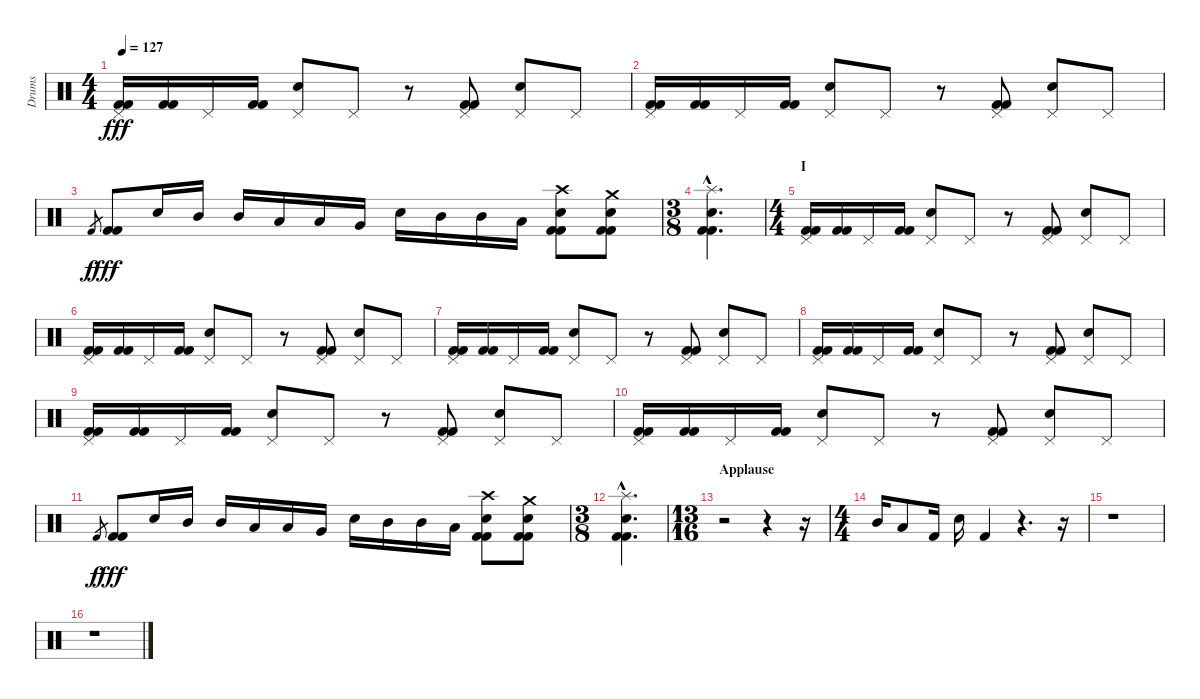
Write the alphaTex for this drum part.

\track ("Drums" "Drums") {instrument percussion}
\staff {score}
\articulation defaults
\ts (4 4)
\tempo 127
\clef neutral
\ks c
("Pedal Hi-Hat (hit)" "Kick (hit) 2" "Kick (hit) 2").16{dy fff} ("Kick (hit) 2" "Kick (hit) 2").16 "Pedal Hi-Hat (hit)".16 ("Kick (hit) 2" "Kick (hit) 2").16 ("Pedal Hi-Hat (hit)" "Electric Snare (hit)").8 "Pedal Hi-Hat (hit)".8 r.8 ("Pedal Hi-Hat (hit)" "Kick (hit) 2" "Kick (hit) 2").8 ("Pedal Hi-Hat (hit)" "Electric Snare (hit)").8 "Pedal Hi-Hat (hit)".8 |
("Pedal Hi-Hat (hit)" "Kick (hit) 2" "Kick (hit) 2").16 ("Kick (hit) 2" "Kick (hit) 2").16 "Pedal Hi-Hat (hit)".16 ("Kick (hit) 2" "Kick (hit) 2").16 ("Pedal Hi-Hat (hit)" "Electric Snare (hit)").8 "Pedal Hi-Hat (hit)".8 r.8 ("Pedal Hi-Hat (hit)" "Kick (hit) 2" "Kick (hit) 2").8 ("Pedal Hi-Hat (hit)" "Electric Snare (hit)").8 "Pedal Hi-Hat (hit)".8 |
"Kick (hit) 2".8{gr dy f} ("Kick (hit) 2" "Kick (hit) 2").8{dy fff} "Electric Snare (hit)".16 "Mid Tom (hit)".16 "Mid Tom (hit)".16 "Low Tom (hit)".16 "Low Tom (hit)".16 "Very Low Tom (hit)".16 "Electric Snare (hit)".16 "Mid Tom (hit)".16 "Mid Tom (hit)".16 "Low Tom (hit)".16 ("Crash high (hit)" "Electric Snare (hit)" "Kick (hit) 2" "Kick (hit) 2").8 ("Crash medium (hit)" "Electric Snare (hit)" "Kick (hit) 2" "Kick (hit) 2").8 |
\ts (3 8)
("Splash (hit)"{hac} "Electric Snare (hit)"{hac} "Kick (hit) 2"{hac} "Kick (hit) 2"{hac}).4{d} |
\ts (4 4)
\section ("" "I")
("Pedal Hi-Hat (hit)" "Kick (hit) 2" "Kick (hit) 2").16 ("Kick (hit) 2" "Kick (hit) 2").16 "Pedal Hi-Hat (hit)".16 ("Kick (hit) 2" "Kick (hit) 2").16 ("Pedal Hi-Hat (hit)" "Electric Snare (hit)").8 "Pedal Hi-Hat (hit)".8 r.8 ("Pedal Hi-Hat (hit)" "Kick (hit) 2" "Kick (hit) 2").8 ("Pedal Hi-Hat (hit)" "Electric Snare (hit)").8 "Pedal Hi-Hat (hit)".8 |
("Pedal Hi-Hat (hit)" "Kick (hit) 2" "Kick (hit) 2").16 ("Kick (hit) 2" "Kick (hit) 2").16 "Pedal Hi-Hat (hit)".16 ("Kick (hit) 2" "Kick (hit) 2").16 ("Pedal Hi-Hat (hit)" "Electric Snare (hit)").8 "Pedal Hi-Hat (hit)".8 r.8 ("Pedal Hi-Hat (hit)" "Kick (hit) 2" "Kick (hit) 2").8 ("Pedal Hi-Hat (hit)" "Electric Snare (hit)").8 "Pedal Hi-Hat (hit)".8 |
("Pedal Hi-Hat (hit)" "Kick (hit) 2" "Kick (hit) 2").16 ("Kick (hit) 2" "Kick (hit) 2").16 "Pedal Hi-Hat (hit)".16 ("Kick (hit) 2" "Kick (hit) 2").16 ("Pedal Hi-Hat (hit)" "Electric Snare (hit)").8 "Pedal Hi-Hat (hit)".8 r.8 ("Pedal Hi-Hat (hit)" "Kick (hit) 2" "Kick (hit) 2").8 ("Pedal Hi-Hat (hit)" "Electric Snare (hit)").8 "Pedal Hi-Hat (hit)".8 |
("Pedal Hi-Hat (hit)" "Kick (hit) 2" "Kick (hit) 2").16 ("Kick (hit) 2" "Kick (hit) 2").16 "Pedal Hi-Hat (hit)".16 ("Kick (hit) 2" "Kick (hit) 2").16 ("Pedal Hi-Hat (hit)" "Electric Snare (hit)").8 "Pedal Hi-Hat (hit)".8 r.8 ("Pedal Hi-Hat (hit)" "Kick (hit) 2" "Kick (hit) 2").8 ("Pedal Hi-Hat (hit)" "Electric Snare (hit)").8 "Pedal Hi-Hat (hit)".8 |
("Pedal Hi-Hat (hit)" "Kick (hit) 2" "Kick (hit) 2").16 ("Kick (hit) 2" "Kick (hit) 2").16 "Pedal Hi-Hat (hit)".16 ("Kick (hit) 2" "Kick (hit) 2").16 ("Pedal Hi-Hat (hit)" "Electric Snare (hit)").8 "Pedal Hi-Hat (hit)".8 r.8 ("Pedal Hi-Hat (hit)" "Kick (hit) 2" "Kick (hit) 2").8 ("Pedal Hi-Hat (hit)" "Electric Snare (hit)").8 "Pedal Hi-Hat (hit)".8 |
("Pedal Hi-Hat (hit)" "Kick (hit) 2" "Kick (hit) 2").16 ("Kick (hit) 2" "Kick (hit) 2").16 "Pedal Hi-Hat (hit)".16 ("Kick (hit) 2" "Kick (hit) 2").16 ("Pedal Hi-Hat (hit)" "Electric Snare (hit)").8 "Pedal Hi-Hat (hit)".8 r.8 ("Pedal Hi-Hat (hit)" "Kick (hit) 2" "Kick (hit) 2").8 ("Pedal Hi-Hat (hit)" "Electric Snare (hit)").8 "Pedal Hi-Hat (hit)".8 |
"Kick (hit) 2".8{gr dy f} ("Kick (hit) 2" "Kick (hit) 2").8{dy fff volume 16} "Electric Snare (hit)".16 "Mid Tom (hit)".16 "Mid Tom (hit)".16 "Low Tom (hit)".16 "Low Tom (hit)".16 "Very Low Tom (hit)".16 "Electric Snare (hit)".16 "Mid Tom (hit)".16 "Mid Tom (hit)".16 "Low Tom (hit)".16 ("Crash high (hit)" "Electric Snare (hit)" "Kick (hit) 2" "Kick (hit) 2").8 ("Crash medium (hit)" "Electric Snare (hit)" "Kick (hit) 2" "Kick (hit) 2").8 |
\ts (3 8)
("Splash (hit)"{hac} "Electric Snare (hit)"{hac} "Kick (hit) 2"{hac} "Kick (hit) 2"{hac}).4{d} |
\ts (13 16)
\section ("" "Applause")
r.2 r.4 r.16 |
\ts (4 4)
"Mid Tom (hit)".16 "Low Tom (hit)".8 "Kick (hit) 2".16 "Electric Snare (hit)".16 "Kick (hit) 2".4 r.4{d} r.16 |
r.1 |
r.1
